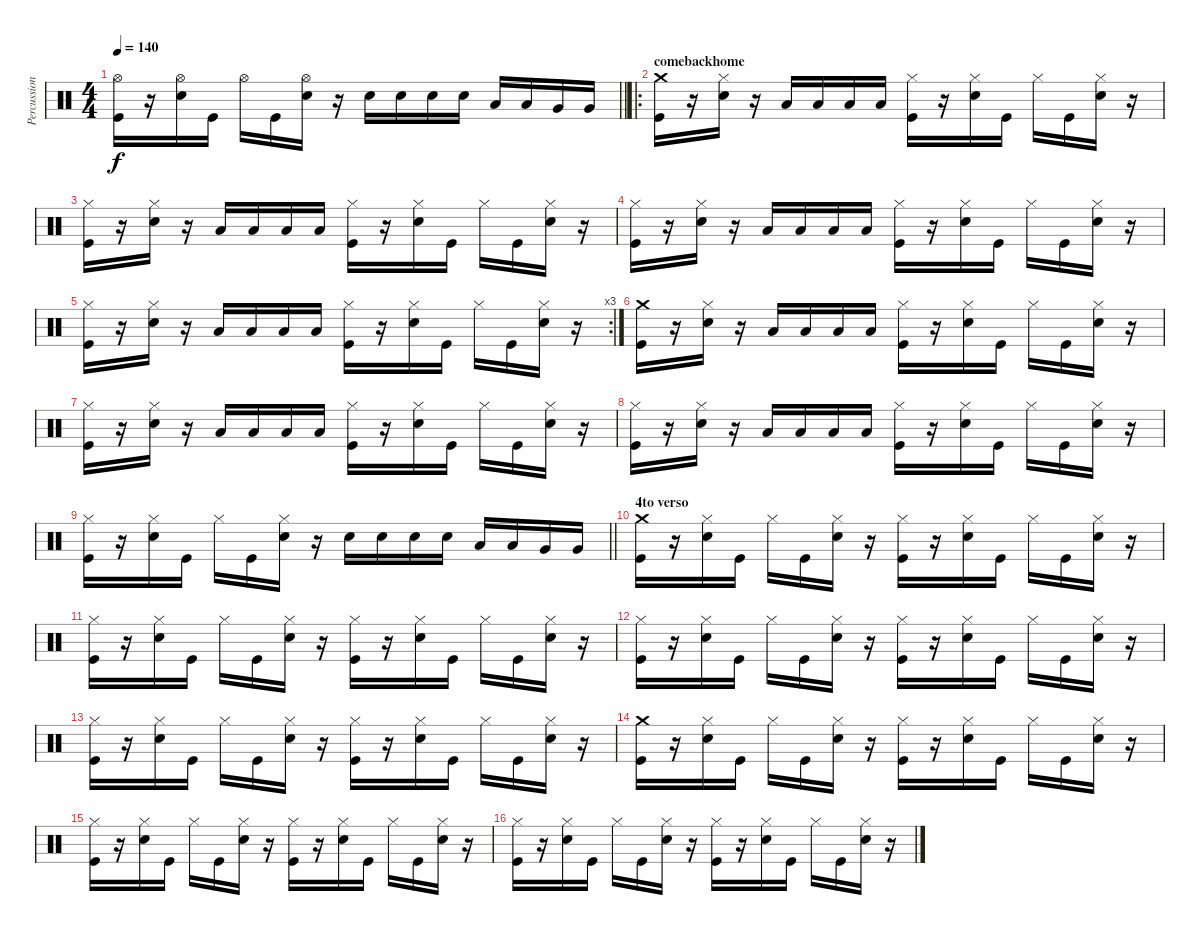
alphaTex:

\track ("Percussion" "Percussion") {instrument percussion}
\staff {score}
\articulation defaults
\ts (4 4)
\tempo 140
\clef neutral
\barLineRight lightlight
\ks c
("Hi-Hat (open)" "Kick (hit)").16{dy f} r.16 ("Hi-Hat (open)" "Snare (hit) 2").16 "Kick (hit)".16 "Hi-Hat (open)".16 "Kick (hit)".16 ("Hi-Hat (open)" "Snare (hit) 2").16 r.16 "Snare (hit) 2".16 "Snare (hit) 2".16 "Snare (hit) 2".16 "Snare (hit) 2".16 "Low Tom (hit)".16 "Low Tom (hit)".16 "Very Low Tom (hit)".16 "Very Low Tom (hit)".16 |
\ro
\section ("" "comebackhome")
("Crash medium (hit)" "Kick (hit)").16 r.16 ("Hi-Hat (closed)" "Snare (hit) 2").16 r.16 "Low Tom (hit)".16 "Low Tom (hit)".16 "Low Tom (hit)".16 "Low Tom (hit)".16 ("Hi-Hat (closed)" "Kick (hit)").16 r.16 ("Hi-Hat (closed)" "Snare (hit) 2").16 "Kick (hit)".16 "Hi-Hat (closed)".16 "Kick (hit)".16 ("Hi-Hat (closed)" "Snare (hit) 2").16 r.16 |
("Hi-Hat (closed)" "Kick (hit)").16 r.16 ("Hi-Hat (closed)" "Snare (hit) 2").16 r.16 "Low Tom (hit)".16 "Low Tom (hit)".16 "Low Tom (hit)".16 "Low Tom (hit)".16 ("Hi-Hat (closed)" "Kick (hit)").16 r.16 ("Hi-Hat (closed)" "Snare (hit) 2").16 "Kick (hit)".16 "Hi-Hat (closed)".16 "Kick (hit)".16 ("Hi-Hat (closed)" "Snare (hit) 2").16 r.16 |
("Hi-Hat (closed)" "Kick (hit)").16 r.16 ("Hi-Hat (closed)" "Snare (hit) 2").16 r.16 "Low Tom (hit)".16 "Low Tom (hit)".16 "Low Tom (hit)".16 "Low Tom (hit)".16 ("Hi-Hat (closed)" "Kick (hit)").16 r.16 ("Hi-Hat (closed)" "Snare (hit) 2").16 "Kick (hit)".16 "Hi-Hat (closed)".16 "Kick (hit)".16 ("Hi-Hat (closed)" "Snare (hit) 2").16 r.16 |
\rc 3
("Hi-Hat (closed)" "Kick (hit)").16 r.16 ("Hi-Hat (closed)" "Snare (hit) 2").16 r.16 "Low Tom (hit)".16 "Low Tom (hit)".16 "Low Tom (hit)".16 "Low Tom (hit)".16 ("Hi-Hat (closed)" "Kick (hit)").16 r.16 ("Hi-Hat (closed)" "Snare (hit) 2").16 "Kick (hit)".16 "Hi-Hat (closed)".16 "Kick (hit)".16 ("Hi-Hat (closed)" "Snare (hit) 2").16 r.16 |
("Crash medium (hit)" "Kick (hit)").16 r.16 ("Hi-Hat (closed)" "Snare (hit) 2").16 r.16 "Low Tom (hit)".16 "Low Tom (hit)".16 "Low Tom (hit)".16 "Low Tom (hit)".16 ("Hi-Hat (closed)" "Kick (hit)").16 r.16 ("Hi-Hat (closed)" "Snare (hit) 2").16 "Kick (hit)".16 "Hi-Hat (closed)".16 "Kick (hit)".16 ("Hi-Hat (closed)" "Snare (hit) 2").16 r.16 |
("Hi-Hat (closed)" "Kick (hit)").16 r.16 ("Hi-Hat (closed)" "Snare (hit) 2").16 r.16 "Low Tom (hit)".16 "Low Tom (hit)".16 "Low Tom (hit)".16 "Low Tom (hit)".16 ("Hi-Hat (closed)" "Kick (hit)").16 r.16 ("Hi-Hat (closed)" "Snare (hit) 2").16 "Kick (hit)".16 "Hi-Hat (closed)".16 "Kick (hit)".16 ("Hi-Hat (closed)" "Snare (hit) 2").16 r.16 |
("Hi-Hat (closed)" "Kick (hit)").16 r.16 ("Hi-Hat (closed)" "Snare (hit) 2").16 r.16 "Low Tom (hit)".16 "Low Tom (hit)".16 "Low Tom (hit)".16 "Low Tom (hit)".16 ("Hi-Hat (closed)" "Kick (hit)").16 r.16 ("Hi-Hat (closed)" "Snare (hit) 2").16 "Kick (hit)".16 "Hi-Hat (closed)".16 "Kick (hit)".16 ("Hi-Hat (closed)" "Snare (hit) 2").16 r.16 |
\barLineRight lightlight
("Hi-Hat (closed)" "Kick (hit)").16 r.16 ("Hi-Hat (closed)" "Snare (hit) 2").16 "Kick (hit)".16 "Hi-Hat (closed)".16 "Kick (hit)".16 ("Hi-Hat (closed)" "Snare (hit) 2").16 r.16 "Snare (hit) 2".16 "Snare (hit) 2".16 "Snare (hit) 2".16 "Snare (hit) 2".16 "Low Tom (hit)".16 "Low Tom (hit)".16 "Very Low Tom (hit)".16 "Very Low Tom (hit)".16 |
\section ("" "4to verso")
("Crash medium (hit)" "Kick (hit)").16 r.16 ("Hi-Hat (closed)" "Snare (hit) 2").16 "Kick (hit)".16 "Hi-Hat (closed)".16 "Kick (hit)".16 ("Hi-Hat (closed)" "Snare (hit) 2").16 r.16 ("Hi-Hat (closed)" "Kick (hit)").16 r.16 ("Hi-Hat (closed)" "Snare (hit) 2").16 "Kick (hit)".16 "Hi-Hat (closed)".16 "Kick (hit)".16 ("Hi-Hat (closed)" "Snare (hit) 2").16 r.16 |
("Hi-Hat (closed)" "Kick (hit)").16 r.16 ("Hi-Hat (closed)" "Snare (hit) 2").16 "Kick (hit)".16 "Hi-Hat (closed)".16 "Kick (hit)".16 ("Hi-Hat (closed)" "Snare (hit) 2").16 r.16 ("Hi-Hat (closed)" "Kick (hit)").16 r.16 ("Hi-Hat (closed)" "Snare (hit) 2").16 "Kick (hit)".16 "Hi-Hat (closed)".16 "Kick (hit)".16 ("Hi-Hat (closed)" "Snare (hit) 2").16 r.16 |
("Hi-Hat (closed)" "Kick (hit)").16 r.16 ("Hi-Hat (closed)" "Snare (hit) 2").16 "Kick (hit)".16 "Hi-Hat (closed)".16 "Kick (hit)".16 ("Hi-Hat (closed)" "Snare (hit) 2").16 r.16 ("Hi-Hat (closed)" "Kick (hit)").16 r.16 ("Hi-Hat (closed)" "Snare (hit) 2").16 "Kick (hit)".16 "Hi-Hat (closed)".16 "Kick (hit)".16 ("Hi-Hat (closed)" "Snare (hit) 2").16 r.16 |
("Hi-Hat (closed)" "Kick (hit)").16 r.16 ("Hi-Hat (closed)" "Snare (hit) 2").16 "Kick (hit)".16 "Hi-Hat (closed)".16 "Kick (hit)".16 ("Hi-Hat (closed)" "Snare (hit) 2").16 r.16 ("Hi-Hat (closed)" "Kick (hit)").16 r.16 ("Hi-Hat (closed)" "Snare (hit) 2").16 "Kick (hit)".16 "Hi-Hat (closed)".16 "Kick (hit)".16 ("Hi-Hat (closed)" "Snare (hit) 2").16 r.16 |
("Crash medium (hit)" "Kick (hit)").16 r.16 ("Hi-Hat (closed)" "Snare (hit) 2").16 "Kick (hit)".16 "Hi-Hat (closed)".16 "Kick (hit)".16 ("Hi-Hat (closed)" "Snare (hit) 2").16 r.16 ("Hi-Hat (closed)" "Kick (hit)").16 r.16 ("Hi-Hat (closed)" "Snare (hit) 2").16 "Kick (hit)".16 "Hi-Hat (closed)".16 "Kick (hit)".16 ("Hi-Hat (closed)" "Snare (hit) 2").16 r.16 |
("Hi-Hat (closed)" "Kick (hit)").16 r.16 ("Hi-Hat (closed)" "Snare (hit) 2").16 "Kick (hit)".16 "Hi-Hat (closed)".16 "Kick (hit)".16 ("Hi-Hat (closed)" "Snare (hit) 2").16 r.16 ("Hi-Hat (closed)" "Kick (hit)").16 r.16 ("Hi-Hat (closed)" "Snare (hit) 2").16 "Kick (hit)".16 "Hi-Hat (closed)".16 "Kick (hit)".16 ("Hi-Hat (closed)" "Snare (hit) 2").16 r.16 |
("Hi-Hat (closed)" "Kick (hit)").16 r.16 ("Hi-Hat (closed)" "Snare (hit) 2").16 "Kick (hit)".16 "Hi-Hat (closed)".16 "Kick (hit)".16 ("Hi-Hat (closed)" "Snare (hit) 2").16 r.16 ("Hi-Hat (closed)" "Kick (hit)").16 r.16 ("Hi-Hat (closed)" "Snare (hit) 2").16 "Kick (hit)".16 "Hi-Hat (closed)".16 "Kick (hit)".16 ("Hi-Hat (closed)" "Snare (hit) 2").16 r.16
